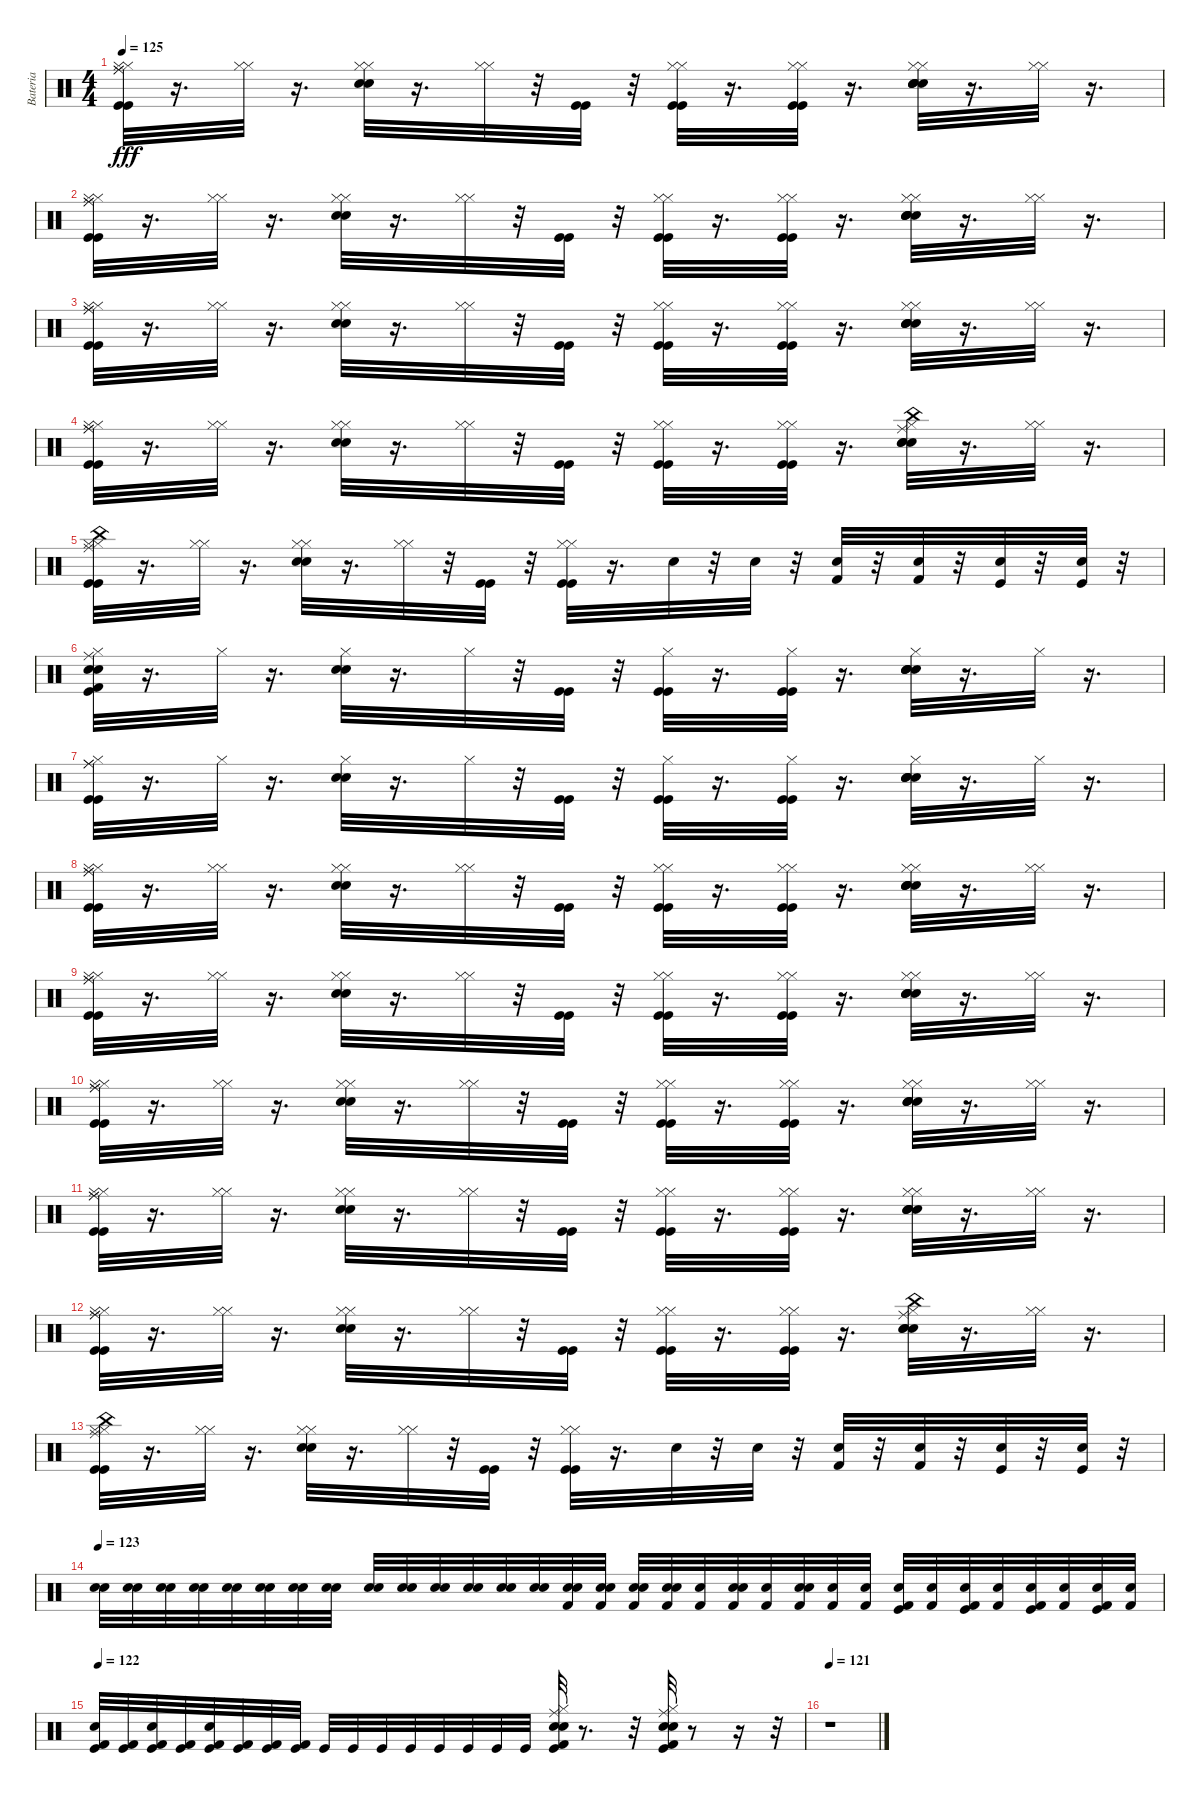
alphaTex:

\track ("Bateria" "Bateria") {instrument percussion}
\staff {score}
\articulation defaults
\ts (4 4)
\tempo 125
\clef neutral
\ks c
("Kick (hit)" "Hi-Hat (closed)" "Ride (middle)" "Kick (hit)" "Hi-Hat (closed)" "Ride (middle)").32{dy fff} r.16{d} ("Hi-Hat (closed)" "Hi-Hat (closed)").32 r.16{d} ("Snare (hit) 2" "Electric Snare (hit)" "Hi-Hat (closed)" "Hi-Hat (closed)").32 r.16{d} ("Hi-Hat (closed)" "Hi-Hat (closed)").32 r.32 ("Kick (hit)" "Kick (hit)").32 r.32 ("Kick (hit)" "Hi-Hat (closed)" "Kick (hit)" "Hi-Hat (closed)").32 r.16{d} ("Kick (hit)" "Hi-Hat (closed)" "Kick (hit)" "Hi-Hat (closed)").32 r.16{d} ("Snare (hit) 2" "Electric Snare (hit)" "Hi-Hat (closed)" "Snare (hit) 2" "Electric Snare (hit)" "Hi-Hat (closed)").32 r.16{d} ("Hi-Hat (closed)" "Hi-Hat (closed)").32 r.16{d} |
("Kick (hit)" "Hi-Hat (closed)" "Ride (middle)" "Kick (hit)" "Hi-Hat (closed)" "Ride (middle)").32 r.16{d} ("Hi-Hat (closed)" "Hi-Hat (closed)").32 r.16{d} ("Snare (hit) 2" "Electric Snare (hit)" "Hi-Hat (closed)" "Hi-Hat (closed)").32 r.16{d} ("Hi-Hat (closed)" "Hi-Hat (closed)").32 r.32 ("Kick (hit)" "Kick (hit)").32 r.32 ("Kick (hit)" "Hi-Hat (closed)" "Kick (hit)" "Hi-Hat (closed)").32 r.16{d} ("Kick (hit)" "Hi-Hat (closed)" "Kick (hit)" "Hi-Hat (closed)").32 r.16{d} ("Snare (hit) 2" "Electric Snare (hit)" "Hi-Hat (closed)" "Snare (hit) 2" "Electric Snare (hit)" "Hi-Hat (closed)").32 r.16{d} ("Hi-Hat (closed)" "Hi-Hat (closed)").32 r.16{d} |
("Kick (hit)" "Hi-Hat (closed)" "Ride (middle)" "Kick (hit)" "Hi-Hat (closed)" "Ride (middle)").32 r.16{d} ("Hi-Hat (closed)" "Hi-Hat (closed)").32 r.16{d} ("Snare (hit) 2" "Electric Snare (hit)" "Hi-Hat (closed)" "Hi-Hat (closed)").32 r.16{d} ("Hi-Hat (closed)" "Hi-Hat (closed)").32 r.32 ("Kick (hit)" "Kick (hit)").32 r.32 ("Kick (hit)" "Hi-Hat (closed)" "Kick (hit)" "Hi-Hat (closed)").32 r.16{d} ("Kick (hit)" "Hi-Hat (closed)" "Kick (hit)" "Hi-Hat (closed)").32 r.16{d} ("Snare (hit) 2" "Electric Snare (hit)" "Hi-Hat (closed)" "Snare (hit) 2" "Electric Snare (hit)" "Hi-Hat (closed)").32 r.16{d} ("Hi-Hat (closed)" "Hi-Hat (closed)").32 r.16{d} |
("Kick (hit)" "Hi-Hat (closed)" "Ride (middle)" "Kick (hit)" "Hi-Hat (closed)" "Ride (middle)").32 r.16{d} ("Hi-Hat (closed)" "Hi-Hat (closed)").32 r.16{d} ("Electric Snare (hit)" "Snare (hit) 2" "Hi-Hat (closed)" "Hi-Hat (closed)").32 r.16{d} ("Hi-Hat (closed)" "Hi-Hat (closed)").32 r.32 ("Kick (hit)" "Kick (hit)").32 r.32 ("Kick (hit)" "Hi-Hat (closed)" "Kick (hit)" "Hi-Hat (closed)").32 r.16{d} ("Kick (hit)" "Hi-Hat (closed)" "Kick (hit)" "Hi-Hat (closed)").32 r.16{d} ("Ride (middle)" "China (hit)" "Snare (hit) 2" "Electric Snare (hit)" "Hi-Hat (closed)" "Snare (hit) 2").32 r.16{d} ("Hi-Hat (closed)" "Hi-Hat (closed)").32 r.16{d} |
("China (hit)" "Kick (hit)" "Hi-Hat (closed)" "Ride (middle)" "Kick (hit)" "Hi-Hat (closed)").32 r.16{d} ("Hi-Hat (closed)" "Hi-Hat (closed)").32 r.16{d} ("Snare (hit) 2" "Electric Snare (hit)" "Hi-Hat (closed)" "Hi-Hat (closed)").32 r.16{d} ("Hi-Hat (closed)" "Hi-Hat (closed)").32 r.32 ("Kick (hit)" "Kick (hit)").32 r.32 ("Kick (hit)" "Hi-Hat (closed)" "Kick (hit)" "Hi-Hat (closed)").32 r.16{d} "Electric Snare (hit)".32 r.32 "Electric Snare (hit)".32 r.32 ("Kick (hit) 2" "Electric Snare (hit)").32 r.32 ("Kick (hit) 2" "Electric Snare (hit)").32 r.32 ("Snare (hit) 2" "Kick (hit)").32 r.32 ("Snare (hit) 2" "Kick (hit)").32 r.32 |
("Kick (hit) 2" "Snare (hit) 2" "Electric Snare (hit)" "Hi-Hat (closed)" "Kick (hit)" "Ride (middle)").32 r.16{d} "Hi-Hat (closed)".32 r.16{d} ("Snare (hit) 2" "Electric Snare (hit)" "Hi-Hat (closed)").32 r.16{d} "Hi-Hat (closed)".32 r.32 ("Kick (hit)" "Kick (hit)").32 r.32 ("Hi-Hat (closed)" "Kick (hit)" "Kick (hit)").32 r.16{d} ("Hi-Hat (closed)" "Kick (hit)" "Kick (hit)").32 r.16{d} ("Hi-Hat (closed)" "Snare (hit) 2" "Electric Snare (hit)" "Snare (hit) 2" "Electric Snare (hit)").32 r.16{d} "Hi-Hat (closed)".32 r.16{d} |
("Hi-Hat (closed)" "Kick (hit)" "Ride (middle)" "Kick (hit)" "Ride (middle)").32 r.16{d} "Hi-Hat (closed)".32 r.16{d} ("Snare (hit) 2" "Electric Snare (hit)" "Hi-Hat (closed)").32 r.16{d} "Hi-Hat (closed)".32 r.32 ("Kick (hit)" "Kick (hit)").32 r.32 ("Hi-Hat (closed)" "Kick (hit)" "Kick (hit)").32 r.16{d} ("Hi-Hat (closed)" "Kick (hit)" "Kick (hit)").32 r.16{d} ("Hi-Hat (closed)" "Snare (hit) 2" "Electric Snare (hit)" "Snare (hit) 2" "Electric Snare (hit)").32 r.16{d} "Hi-Hat (closed)".32 r.16{d} |
("Kick (hit)" "Hi-Hat (closed)" "Ride (middle)" "Kick (hit)" "Hi-Hat (closed)" "Ride (middle)").32 r.16{d} ("Hi-Hat (closed)" "Hi-Hat (closed)").32 r.16{d} ("Snare (hit) 2" "Electric Snare (hit)" "Hi-Hat (closed)" "Hi-Hat (closed)").32 r.16{d} ("Hi-Hat (closed)" "Hi-Hat (closed)").32 r.32 ("Kick (hit)" "Kick (hit)").32 r.32 ("Kick (hit)" "Hi-Hat (closed)" "Kick (hit)" "Hi-Hat (closed)").32 r.16{d} ("Kick (hit)" "Hi-Hat (closed)" "Kick (hit)" "Hi-Hat (closed)").32 r.16{d} ("Snare (hit) 2" "Electric Snare (hit)" "Hi-Hat (closed)" "Snare (hit) 2" "Electric Snare (hit)" "Hi-Hat (closed)").32 r.16{d} ("Hi-Hat (closed)" "Hi-Hat (closed)").32 r.16{d} |
("Kick (hit)" "Hi-Hat (closed)" "Ride (middle)" "Kick (hit)" "Hi-Hat (closed)" "Ride (middle)").32 r.16{d} ("Hi-Hat (closed)" "Hi-Hat (closed)").32 r.16{d} ("Snare (hit) 2" "Electric Snare (hit)" "Hi-Hat (closed)" "Hi-Hat (closed)").32 r.16{d} ("Hi-Hat (closed)" "Hi-Hat (closed)").32 r.32 ("Kick (hit)" "Kick (hit)").32 r.32 ("Kick (hit)" "Hi-Hat (closed)" "Kick (hit)" "Hi-Hat (closed)").32 r.16{d} ("Kick (hit)" "Hi-Hat (closed)" "Kick (hit)" "Hi-Hat (closed)").32 r.16{d} ("Snare (hit) 2" "Electric Snare (hit)" "Hi-Hat (closed)" "Snare (hit) 2" "Electric Snare (hit)" "Hi-Hat (closed)").32 r.16{d} ("Hi-Hat (closed)" "Hi-Hat (closed)").32 r.16{d} |
("Kick (hit)" "Hi-Hat (closed)" "Ride (middle)" "Kick (hit)" "Hi-Hat (closed)" "Ride (middle)").32 r.16{d} ("Hi-Hat (closed)" "Hi-Hat (closed)").32 r.16{d} ("Snare (hit) 2" "Electric Snare (hit)" "Hi-Hat (closed)" "Hi-Hat (closed)").32 r.16{d} ("Hi-Hat (closed)" "Hi-Hat (closed)").32 r.32 ("Kick (hit)" "Kick (hit)").32 r.32 ("Kick (hit)" "Hi-Hat (closed)" "Kick (hit)" "Hi-Hat (closed)").32 r.16{d} ("Kick (hit)" "Hi-Hat (closed)" "Kick (hit)" "Hi-Hat (closed)").32 r.16{d} ("Snare (hit) 2" "Electric Snare (hit)" "Hi-Hat (closed)" "Snare (hit) 2" "Electric Snare (hit)" "Hi-Hat (closed)").32 r.16{d} ("Hi-Hat (closed)" "Hi-Hat (closed)").32 r.16{d} |
("Kick (hit)" "Hi-Hat (closed)" "Ride (middle)" "Kick (hit)" "Hi-Hat (closed)" "Ride (middle)").32 r.16{d} ("Hi-Hat (closed)" "Hi-Hat (closed)").32 r.16{d} ("Snare (hit) 2" "Electric Snare (hit)" "Hi-Hat (closed)" "Hi-Hat (closed)").32 r.16{d} ("Hi-Hat (closed)" "Hi-Hat (closed)").32 r.32 ("Kick (hit)" "Kick (hit)").32 r.32 ("Kick (hit)" "Hi-Hat (closed)" "Kick (hit)" "Hi-Hat (closed)").32 r.16{d} ("Kick (hit)" "Hi-Hat (closed)" "Kick (hit)" "Hi-Hat (closed)").32 r.16{d} ("Snare (hit) 2" "Electric Snare (hit)" "Hi-Hat (closed)" "Snare (hit) 2" "Electric Snare (hit)" "Hi-Hat (closed)").32 r.16{d} ("Hi-Hat (closed)" "Hi-Hat (closed)").32 r.16{d} |
("Kick (hit)" "Hi-Hat (closed)" "Ride (middle)" "Kick (hit)" "Hi-Hat (closed)" "Ride (middle)").32 r.16{d} ("Hi-Hat (closed)" "Hi-Hat (closed)").32 r.16{d} ("Electric Snare (hit)" "Snare (hit) 2" "Hi-Hat (closed)" "Hi-Hat (closed)").32 r.16{d} ("Hi-Hat (closed)" "Hi-Hat (closed)").32 r.32 ("Kick (hit)" "Kick (hit)").32 r.32 ("Kick (hit)" "Hi-Hat (closed)" "Kick (hit)" "Hi-Hat (closed)").32 r.16{d} ("Kick (hit)" "Hi-Hat (closed)" "Kick (hit)" "Hi-Hat (closed)").32 r.16{d} ("Ride (middle)" "China (hit)" "Snare (hit) 2" "Electric Snare (hit)" "Hi-Hat (closed)" "Snare (hit) 2").32 r.16{d} ("Hi-Hat (closed)" "Hi-Hat (closed)").32 r.16{d} |
("China (hit)" "Kick (hit)" "Hi-Hat (closed)" "Ride (middle)" "Kick (hit)" "Hi-Hat (closed)").32 r.16{d} ("Hi-Hat (closed)" "Hi-Hat (closed)").32 r.16{d} ("Snare (hit) 2" "Electric Snare (hit)" "Hi-Hat (closed)" "Hi-Hat (closed)").32 r.16{d} ("Hi-Hat (closed)" "Hi-Hat (closed)").32 r.32 ("Kick (hit)" "Kick (hit)").32 r.32 ("Kick (hit)" "Hi-Hat (closed)" "Kick (hit)" "Hi-Hat (closed)").32 r.16{d} "Electric Snare (hit)".32 r.32 "Electric Snare (hit)".32 r.32 ("Kick (hit) 2" "Electric Snare (hit)").32 r.32 ("Kick (hit) 2" "Electric Snare (hit)").32 r.32 ("Snare (hit) 2" "Kick (hit)").32 r.32 ("Snare (hit) 2" "Kick (hit)").32 r.32 |
\tempo 123
("Electric Snare (hit)" "Snare (hit) 2").32 ("Electric Snare (hit)" "Snare (hit) 2").32 ("Electric Snare (hit)" "Snare (hit) 2").32 ("Electric Snare (hit)" "Snare (hit) 2").32 ("Electric Snare (hit)" "Snare (hit) 2").32 ("Electric Snare (hit)" "Snare (hit) 2").32 ("Electric Snare (hit)" "Snare (hit) 2").32 ("Electric Snare (hit)" "Snare (hit) 2").32 ("Electric Snare (hit)" "Snare (hit) 2").32 ("Electric Snare (hit)" "Snare (hit) 2").32 ("Electric Snare (hit)" "Snare (hit) 2").32 ("Electric Snare (hit)" "Snare (hit) 2").32 ("Electric Snare (hit)" "Snare (hit) 2").32 ("Electric Snare (hit)" "Snare (hit) 2").32 ("Kick (hit) 2" "Electric Snare (hit)" "Snare (hit) 2").32 ("Kick (hit) 2" "Electric Snare (hit)" "Snare (hit) 2").32 ("Electric Snare (hit)" "Snare (hit) 2" "Kick (hit) 2").32 ("Electric Snare (hit)" "Snare (hit) 2" "Kick (hit) 2").32 ("Snare (hit) 2" "Kick (hit) 2").32 ("Electric Snare (hit)" "Snare (hit) 2" "Kick (hit) 2").32 ("Snare (hit) 2" "Kick (hit) 2").32 ("Electric Snare (hit)" "Snare (hit) 2" "Kick (hit) 2").32 ("Snare (hit) 2" "Kick (hit) 2").32 ("Snare (hit) 2" "Kick (hit) 2").32 ("Snare (hit) 2" "Kick (hit) 2" "Kick (hit)").32 ("Snare (hit) 2" "Kick (hit) 2").32 ("Snare (hit) 2" "Kick (hit) 2" "Kick (hit)").32 ("Snare (hit) 2" "Kick (hit) 2").32 ("Snare (hit) 2" "Kick (hit)" "Kick (hit) 2").32 ("Snare (hit) 2" "Kick (hit) 2").32 ("Snare (hit) 2" "Kick (hit)" "Kick (hit) 2").32 ("Snare (hit) 2" "Kick (hit) 2").32 |
\tempo 122
("Snare (hit) 2" "Kick (hit)" "Kick (hit) 2").32 ("Kick (hit)" "Kick (hit) 2").32 ("Snare (hit) 2" "Kick (hit)" "Kick (hit) 2").32 ("Kick (hit)" "Kick (hit) 2").32 ("Kick (hit) 2" "Snare (hit) 2" "Kick (hit)").32 ("Kick (hit) 2" "Kick (hit)").32 ("Kick (hit) 2" "Kick (hit)").32 ("Kick (hit) 2" "Kick (hit)").32 "Kick (hit)".32 "Kick (hit)".32 "Kick (hit)".32 "Kick (hit)".32 "Kick (hit)".32 "Kick (hit)".32 "Kick (hit)".32 "Kick (hit)".32 ("Kick (hit)" "Kick (hit) 2" "Electric Snare (hit)" "Snare (hit) 2" "Hi-Hat (closed)" "Ride (middle)").32 r.8{d} r.32 ("Kick (hit)" "Kick (hit) 2" "Snare (hit) 2" "Electric Snare (hit)" "Hi-Hat (closed)" "Ride (middle)").32 r.8 r.16 r.32 |
\tempo 121
r.1
